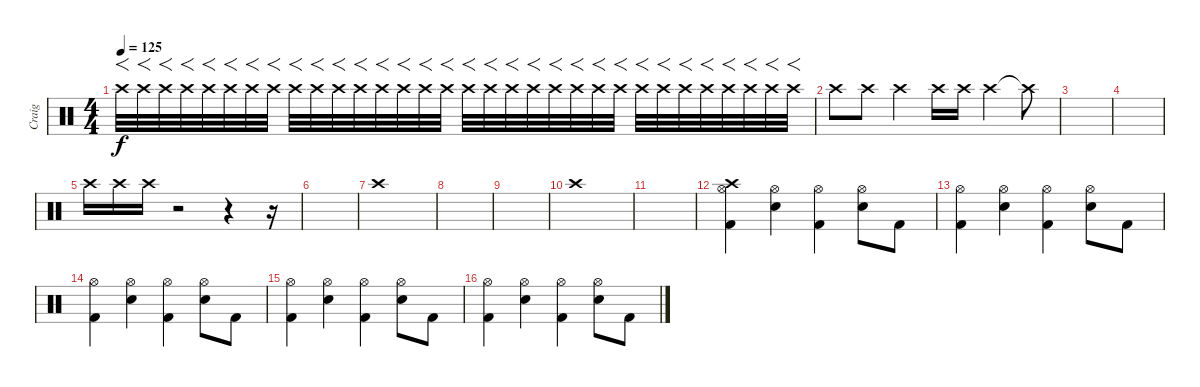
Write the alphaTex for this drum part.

\track ("Craig" "Craig") {instrument percussion}
\staff {score}
\articulation defaults
\ts (4 4)
\tempo 125
\clef neutral
\ks c "Crash high (hit)".32{f dy f} "Crash high (hit)".32{f} "Crash high (hit)".32{f} "Crash high (hit)".32{f} "Crash high (hit)".32{f} "Crash high (hit)".32{f} "Crash high (hit)".32{f} "Crash high (hit)".32{f} "Crash high (hit)".32{f} "Crash high (hit)".32{f} "Crash high (hit)".32{f} "Crash high (hit)".32{f} "Crash high (hit)".32{f} "Crash high (hit)".32{f} "Crash high (hit)".32{f} "Crash high (hit)".32{f} "Crash high (hit)".32{f} "Crash high (hit)".32{f} "Crash high (hit)".32{f} "Crash high (hit)".32{f} "Crash high (hit)".32{f} "Crash high (hit)".32{f} "Crash high (hit)".32{f} "Crash high (hit)".32{f} "Crash high (hit)".32{f} "Crash high (hit)".32{f} "Crash high (hit)".32{f} "Crash high (hit)".32{f} "Crash high (hit)".32{f} "Crash high (hit)".32{f} "Crash high (hit)".32{f} "Crash high (hit)".32{f}
|
"Crash high (hit)".8 "Crash high (hit)".8 "Crash high (hit)".4 "Crash high (hit)".16 "Crash high (hit)".16 "Crash high (hit)".4 "Crash high (hit)"{t}.8 |
|
|
"Crash high (hit)".16 "Crash high (hit)".16 "Crash high (hit)".16 r.2 r.4 r.16 |
|
"Crash high (hit)".1 |
|
|
"Crash high (hit)".1 |
|
("Crash high (hit)" "Hi-Hat (open)" "Kick (hit) 2").4 ("Hi-Hat (open)" "Snare (hit) 2").4 ("Hi-Hat (open)" "Kick (hit) 2").4 ("Hi-Hat (open)" "Snare (hit) 2").8 "Kick (hit) 2".8 |
("Hi-Hat (open)" "Kick (hit) 2").4 ("Hi-Hat (open)" "Snare (hit) 2").4 ("Hi-Hat (open)" "Kick (hit) 2").4 ("Hi-Hat (open)" "Snare (hit) 2").8 "Kick (hit) 2".8 |
("Hi-Hat (open)" "Kick (hit) 2").4 ("Hi-Hat (open)" "Snare (hit) 2").4 ("Hi-Hat (open)" "Kick (hit) 2").4 ("Hi-Hat (open)" "Snare (hit) 2").8 "Kick (hit) 2".8 |
("Hi-Hat (open)" "Kick (hit) 2").4 ("Hi-Hat (open)" "Snare (hit) 2").4 ("Hi-Hat (open)" "Kick (hit) 2").4 ("Hi-Hat (open)" "Snare (hit) 2").8 "Kick (hit) 2".8 |
("Hi-Hat (open)" "Kick (hit) 2").4 ("Hi-Hat (open)" "Snare (hit) 2").4 ("Hi-Hat (open)" "Kick (hit) 2").4 ("Hi-Hat (open)" "Snare (hit) 2").8 "Kick (hit) 2".8
